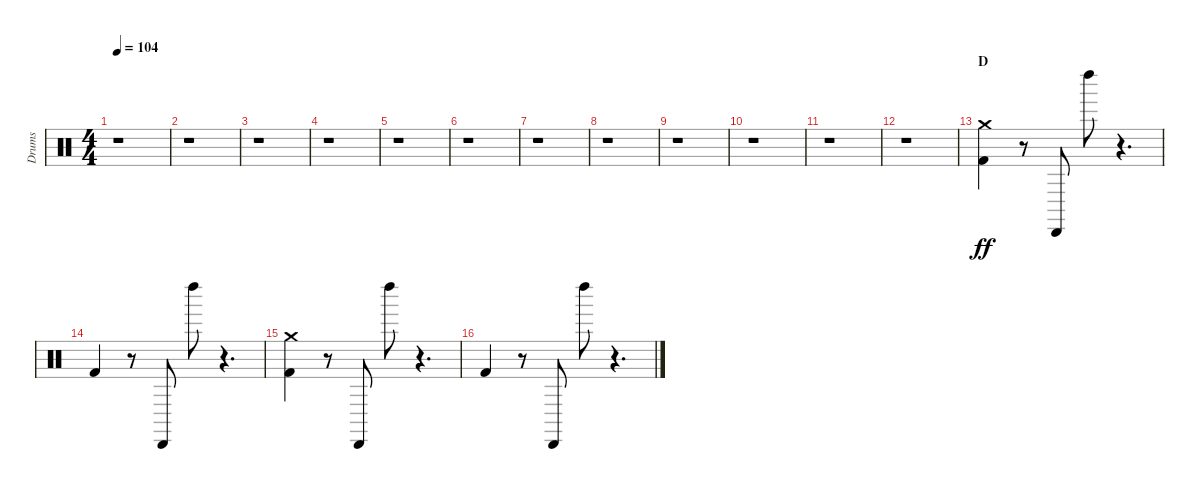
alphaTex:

\track ("Drums" "Drums") {instrument percussion}
\staff {score}
\articulation defaults
\ts (4 4)
\tempo 104
\clef neutral
\ks c
r.1{dy ff} |
r.1 |
r.1 |
r.1 |
r.1 |
r.1 |
r.1 |
r.1 |
r.1 |
r.1 |
r.1 |
r.1 |
\section ("" "D")
("Crash medium (hit)" "Kick (hit) 2").4 r.8 "Cabasa (hit)".8 "Left Maraca (hit)".8 r.4{d} |
"Kick (hit) 2".4 r.8 "Cabasa (hit)".8 "Left Maraca (hit)".8 r.4{d} |
("Crash medium (hit)" "Kick (hit) 2").4 r.8 "Cabasa (hit)".8 "Left Maraca (hit)".8 r.4{d} |
"Kick (hit) 2".4 r.8 "Cabasa (hit)".8 "Left Maraca (hit)".8 r.4{d}
